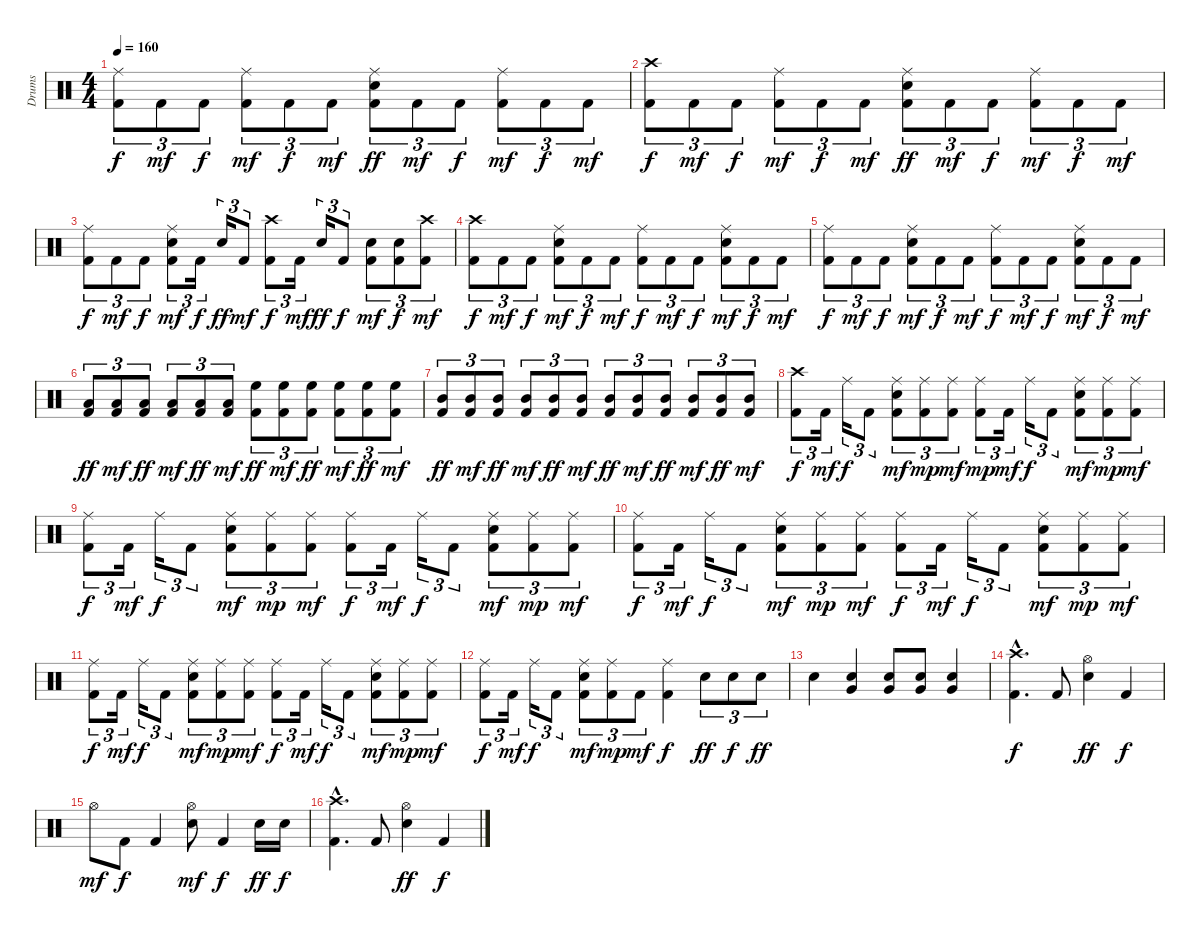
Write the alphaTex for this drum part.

\track ("Drums" "Drums") {instrument percussion}
\staff {score}
\articulation defaults
\ts (4 4)
\tempo 160
\clef neutral
\ks c
("Ride (middle)" "Kick (hit) 2").8{tu (3 2) dy f} "Kick (hit) 2".8{tu (3 2) dy mf} "Kick (hit) 2".8{tu (3 2) dy f} ("Ride (middle)" "Kick (hit) 2").8{tu (3 2) dy mf} "Kick (hit) 2".8{tu (3 2) dy f} "Kick (hit) 2".8{tu (3 2) dy mf} ("Ride (middle)" "Snare (hit) 2" "Kick (hit) 2").8{tu (3 2) dy ff} "Kick (hit) 2".8{tu (3 2) dy mf} "Kick (hit) 2".8{tu (3 2) dy f} ("Ride (middle)" "Kick (hit) 2").8{tu (3 2) dy mf} "Kick (hit) 2".8{tu (3 2) dy f} "Kick (hit) 2".8{tu (3 2) dy mf} |
("Crash high (hit)" "Kick (hit) 2").8{tu (3 2) dy f} "Kick (hit) 2".8{tu (3 2) dy mf} "Kick (hit) 2".8{tu (3 2) dy f} ("Ride (middle)" "Kick (hit) 2").8{tu (3 2) dy mf} "Kick (hit) 2".8{tu (3 2) dy f} "Kick (hit) 2".8{tu (3 2) dy mf} ("Ride (middle)" "Snare (hit) 2" "Kick (hit) 2").8{tu (3 2) dy ff} "Kick (hit) 2".8{tu (3 2) dy mf} "Kick (hit) 2".8{tu (3 2) dy f} ("Ride (middle)" "Kick (hit) 2").8{tu (3 2) dy mf} "Kick (hit) 2".8{tu (3 2) dy f} "Kick (hit) 2".8{tu (3 2) dy mf} |
("Ride (middle)" "Kick (hit) 2").8{tu (3 2) dy f} "Kick (hit) 2".8{tu (3 2) dy mf} "Kick (hit) 2".8{tu (3 2) dy f} ("Ride (middle)" "Snare (hit) 2" "Kick (hit) 2").8{tu (3 2) dy mf} "Kick (hit) 2".16{tu (3 2) dy f} "Snare (hit) 2".16{tu (3 2) dy ff} "Kick (hit) 2".8{tu (3 2) dy mf} ("Crash high (hit)" "Kick (hit) 2").8{tu (3 2) dy f} "Kick (hit) 2".16{tu (3 2) dy mf} "Snare (hit) 2".16{tu (3 2) dy ff} "Kick (hit) 2".8{tu (3 2) dy f} ("Snare (hit) 2" "Kick (hit) 2").8{tu (3 2) dy mf} ("Snare (hit) 2" "Kick (hit) 2").8{tu (3 2) dy f} ("Crash high (hit)" "Kick (hit) 2").8{tu (3 2) dy mf} |
("Crash high (hit)" "Kick (hit) 2").8{tu (3 2) dy f} "Kick (hit) 2".8{tu (3 2) dy mf} "Kick (hit) 2".8{tu (3 2) dy f} ("Snare (hit) 2" "Ride (middle)" "Kick (hit) 2").8{tu (3 2) dy mf} "Kick (hit) 2".8{tu (3 2) dy f} "Kick (hit) 2".8{tu (3 2) dy mf} ("Ride (middle)" "Kick (hit) 2").8{tu (3 2) dy f} "Kick (hit) 2".8{tu (3 2) dy mf} "Kick (hit) 2".8{tu (3 2) dy f} ("Snare (hit) 2" "Ride (middle)" "Kick (hit) 2").8{tu (3 2) dy mf} "Kick (hit) 2".8{tu (3 2) dy f} "Kick (hit) 2".8{tu (3 2) dy mf} |
("Ride (middle)" "Kick (hit) 2").8{tu (3 2) dy f} "Kick (hit) 2".8{tu (3 2) dy mf} "Kick (hit) 2".8{tu (3 2) dy f} ("Snare (hit) 2" "Ride (middle)" "Kick (hit) 2").8{tu (3 2) dy mf} "Kick (hit) 2".8{tu (3 2) dy f} "Kick (hit) 2".8{tu (3 2) dy mf} ("Ride (middle)" "Kick (hit) 2").8{tu (3 2) dy f} "Kick (hit) 2".8{tu (3 2) dy mf} "Kick (hit) 2".8{tu (3 2) dy f} ("Snare (hit) 2" "Ride (middle)" "Kick (hit) 2").8{tu (3 2) dy mf} "Kick (hit) 2".8{tu (3 2) dy f} "Kick (hit) 2".8{tu (3 2) dy mf} |
("Low Tom (hit)" "Kick (hit) 2").8{tu (3 2) dy ff} ("Low Tom (hit)" "Kick (hit) 2").8{tu (3 2) dy mf} ("Low Tom (hit)" "Kick (hit) 2").8{tu (3 2) dy ff} ("Low Tom (hit)" "Kick (hit) 2").8{tu (3 2) dy mf} ("Low Tom (hit)" "Kick (hit) 2").8{tu (3 2) dy ff} ("Low Tom (hit)" "Kick (hit) 2").8{tu (3 2) dy mf} ("High Floor Tom (hit)" "Kick (hit) 2").8{tu (3 2) dy ff} ("High Floor Tom (hit)" "Kick (hit) 2").8{tu (3 2) dy mf} ("High Floor Tom (hit)" "Kick (hit) 2").8{tu (3 2) dy ff} ("High Floor Tom (hit)" "Kick (hit) 2").8{tu (3 2) dy mf} ("High Floor Tom (hit)" "Kick (hit) 2").8{tu (3 2) dy ff} ("High Floor Tom (hit)" "Kick (hit) 2").8{tu (3 2) dy mf} |
("Mid Tom (hit)" "Kick (hit) 2").8{tu (3 2) dy ff} ("Mid Tom (hit)" "Kick (hit) 2").8{tu (3 2) dy mf} ("Mid Tom (hit)" "Kick (hit) 2").8{tu (3 2) dy ff} ("Mid Tom (hit)" "Kick (hit) 2").8{tu (3 2) dy mf} ("Mid Tom (hit)" "Kick (hit) 2").8{tu (3 2) dy ff} ("Mid Tom (hit)" "Kick (hit) 2").8{tu (3 2) dy mf} ("Mid Tom (hit)" "Kick (hit) 2").8{tu (3 2) dy ff} ("Mid Tom (hit)" "Kick (hit) 2").8{tu (3 2) dy mf} ("Mid Tom (hit)" "Kick (hit) 2").8{tu (3 2) dy ff} ("Mid Tom (hit)" "Kick (hit) 2").8{tu (3 2) dy mf} ("Mid Tom (hit)" "Kick (hit) 2").8{tu (3 2) dy ff} ("Mid Tom (hit)" "Kick (hit) 2").8{tu (3 2) dy mf} |
("Crash high (hit)" "Kick (hit) 2").8{tu (3 2) dy f} "Kick (hit) 2".16{tu (3 2) dy mf} "Ride (middle)".16{tu (3 2) dy f} "Kick (hit) 2".8{tu (3 2)} ("Snare (hit) 2" "Ride (middle)" "Kick (hit) 2").8{tu (3 2) dy mf} ("Ride (middle)" "Kick (hit) 2").8{tu (3 2) dy mp} ("Ride (middle)" "Kick (hit) 2").8{tu (3 2) dy mf} ("Ride (middle)" "Kick (hit) 2").8{tu (3 2) dy mp} "Kick (hit) 2".16{tu (3 2) dy mf} "Ride (middle)".16{tu (3 2) dy f} "Kick (hit) 2".8{tu (3 2)} ("Snare (hit) 2" "Ride (middle)" "Kick (hit) 2").8{tu (3 2) dy mf} ("Ride (middle)" "Kick (hit) 2").8{tu (3 2) dy mp} ("Ride (middle)" "Kick (hit) 2").8{tu (3 2) dy mf} |
("Ride (middle)" "Kick (hit) 2").8{tu (3 2) dy f} "Kick (hit) 2".16{tu (3 2) dy mf} "Ride (middle)".16{tu (3 2) dy f} "Kick (hit) 2".8{tu (3 2)} ("Snare (hit) 2" "Ride (middle)" "Kick (hit) 2").8{tu (3 2) dy mf} ("Ride (middle)" "Kick (hit) 2").8{tu (3 2) dy mp} ("Ride (middle)" "Kick (hit) 2").8{tu (3 2) dy mf} ("Ride (middle)" "Kick (hit) 2").8{tu (3 2) dy f} "Kick (hit) 2".16{tu (3 2) dy mf} "Ride (middle)".16{tu (3 2) dy f} "Kick (hit) 2".8{tu (3 2)} ("Snare (hit) 2" "Ride (middle)" "Kick (hit) 2").8{tu (3 2) dy mf} ("Ride (middle)" "Kick (hit) 2").8{tu (3 2) dy mp} ("Ride (middle)" "Kick (hit) 2").8{tu (3 2) dy mf} |
("Ride (middle)" "Kick (hit) 2").8{tu (3 2) dy f} "Kick (hit) 2".16{tu (3 2) dy mf} "Ride (middle)".16{tu (3 2) dy f} "Kick (hit) 2".8{tu (3 2)} ("Snare (hit) 2" "Ride (middle)" "Kick (hit) 2").8{tu (3 2) dy mf} ("Ride (middle)" "Kick (hit) 2").8{tu (3 2) dy mp} ("Ride (middle)" "Kick (hit) 2").8{tu (3 2) dy mf} ("Ride (middle)" "Kick (hit) 2").8{tu (3 2) dy f} "Kick (hit) 2".16{tu (3 2) dy mf} "Ride (middle)".16{tu (3 2) dy f} "Kick (hit) 2".8{tu (3 2)} ("Snare (hit) 2" "Ride (middle)" "Kick (hit) 2").8{tu (3 2) dy mf} ("Ride (middle)" "Kick (hit) 2").8{tu (3 2) dy mp} ("Ride (middle)" "Kick (hit) 2").8{tu (3 2) dy mf} |
("Ride (middle)" "Kick (hit) 2").8{tu (3 2) dy f} "Kick (hit) 2".16{tu (3 2) dy mf} "Ride (middle)".16{tu (3 2) dy f} "Kick (hit) 2".8{tu (3 2)} ("Snare (hit) 2" "Ride (middle)" "Kick (hit) 2").8{tu (3 2) dy mf} ("Ride (middle)" "Kick (hit) 2").8{tu (3 2) dy mp} ("Ride (middle)" "Kick (hit) 2").8{tu (3 2) dy mf} ("Ride (middle)" "Kick (hit) 2").8{tu (3 2) dy f} "Kick (hit) 2".16{tu (3 2) dy mf} "Ride (middle)".16{tu (3 2) dy f} "Kick (hit) 2".8{tu (3 2)} ("Snare (hit) 2" "Ride (middle)" "Kick (hit) 2").8{tu (3 2) dy mf} ("Ride (middle)" "Kick (hit) 2").8{tu (3 2) dy mp} ("Ride (middle)" "Kick (hit) 2").8{tu (3 2) dy mf} |
("Ride (middle)" "Kick (hit) 2").8{tu (3 2) dy f} "Kick (hit) 2".16{tu (3 2) dy mf} "Ride (middle)".16{tu (3 2) dy f} "Kick (hit) 2".8{tu (3 2)} ("Snare (hit) 2" "Ride (middle)" "Kick (hit) 2").8{tu (3 2) dy mf} ("Ride (middle)" "Kick (hit) 2").8{tu (3 2) dy mp} "Kick (hit) 2".8{tu (3 2) dy mf} ("Ride (middle)" "Kick (hit) 2").4{dy f} "Snare (hit) 2".8{tu (3 2) dy ff} "Snare (hit) 2".8{tu (3 2) dy f} "Snare (hit) 2".8{tu (3 2) dy ff} |
"Snare (hit) 2".4 ("Very Low Tom (hit)" "Snare (hit) 2").4 ("Very Low Tom (hit)" "Snare (hit) 2").8 ("Very Low Tom (hit)" "Snare (hit) 2").8 ("Very Low Tom (hit)" "Snare (hit) 2").4 |
("Crash high (hit)"{hac} "Kick (hit) 2"{hac}).4{d dy f} "Kick (hit) 2".8 ("Hi-Hat (open)" "Snare (hit) 2").4{dy ff} "Kick (hit) 2".4{dy f} |
"Hi-Hat (open)".8{dy mf} "Kick (hit) 2".8{dy f} "Kick (hit) 2".4 ("Snare (hit) 2" "Hi-Hat (open)").8{dy mf} "Kick (hit) 2".4{dy f} "Snare (hit) 2".16{dy ff} "Snare (hit) 2".16{dy f} |
("Crash high (hit)"{hac} "Kick (hit) 2"{hac}).4{d} "Kick (hit) 2".8 ("Hi-Hat (open)" "Snare (hit) 2").4{dy ff} "Kick (hit) 2".4{dy f}
